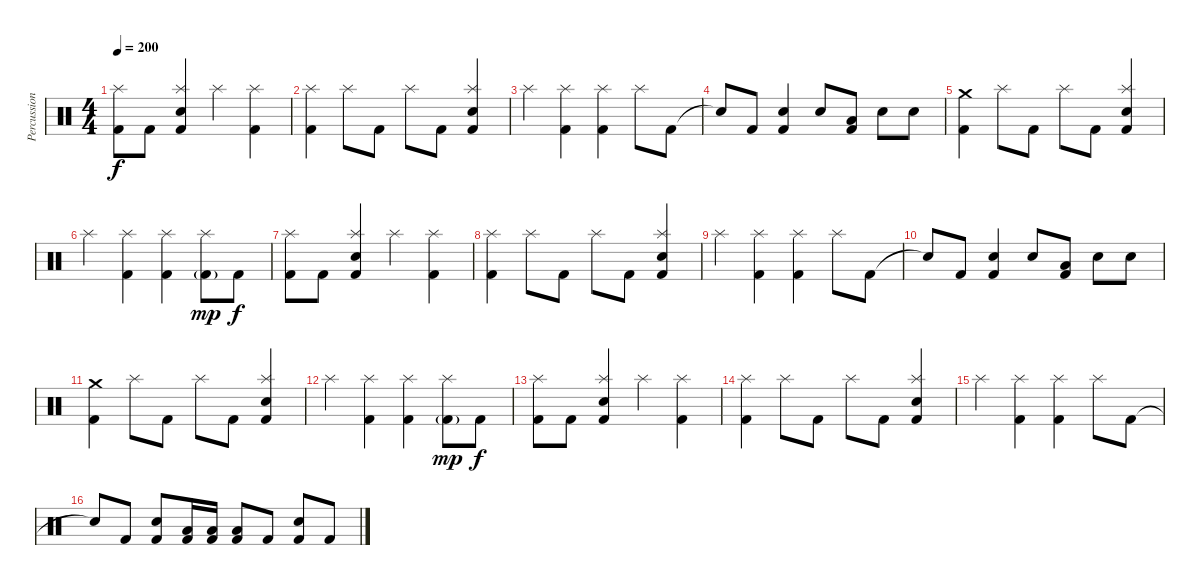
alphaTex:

\track ("Percussion" "Percussion") {instrument percussion}
\staff {score}
\articulation defaults
\ts (4 4)
\tempo 200
\clef neutral
\ks c
("Kick (hit) 2" "Splash (hit)").8{dy f} "Kick (hit) 2".8 ("Kick (hit) 2" "Snare (hit) 2" "Splash (hit)").4 "Splash (hit)".4 ("Kick (hit) 2" "Splash (hit)").4 |
("Kick (hit) 2" "Splash (hit)").4 "Splash (hit)".8 "Kick (hit) 2".8 "Splash (hit)".8 "Kick (hit) 2".8 ("Kick (hit) 2" "Splash (hit)" "Snare (hit) 2").4 |
"Splash (hit)".4 ("Kick (hit) 2" "Splash (hit)").4 ("Kick (hit) 2" "Splash (hit)").4 "Splash (hit)".8 "Kick (hit) 2".8 |
"Snare (hit)"{t}.8 "Kick (hit) 2".8 ("Kick (hit) 2" "Snare (hit) 2").4 "Snare (hit) 2".8 ("Kick (hit) 2" "Low Tom (hit)").8 "Snare (hit) 2".8 "Snare (hit) 2".8 |
("Kick (hit) 2" "Crash medium (hit)").4 "Splash (hit)".8 "Kick (hit) 2".8 "Splash (hit)".8 "Kick (hit) 2".8 ("Kick (hit) 2" "Splash (hit)" "Snare (hit) 2").4 |
"Splash (hit)".4 ("Kick (hit) 2" "Splash (hit)").4 ("Kick (hit) 2" "Splash (hit)").4 ("Kick (hit) 2"{g} "Splash (hit)").8{dy mp} "Kick (hit) 2".8{dy f} |
("Kick (hit) 2" "Splash (hit)").8 "Kick (hit) 2".8 ("Kick (hit) 2" "Snare (hit) 2" "Splash (hit)").4 "Splash (hit)".4 ("Kick (hit) 2" "Splash (hit)").4 |
("Kick (hit) 2" "Splash (hit)").4 "Splash (hit)".8 "Kick (hit) 2".8 "Splash (hit)".8 "Kick (hit) 2".8 ("Kick (hit) 2" "Splash (hit)" "Snare (hit) 2").4 |
"Splash (hit)".4 ("Kick (hit) 2" "Splash (hit)").4 ("Kick (hit) 2" "Splash (hit)").4 "Splash (hit)".8 "Kick (hit) 2".8 |
"Snare (hit)"{t}.8 "Kick (hit) 2".8 ("Kick (hit) 2" "Snare (hit) 2").4 "Snare (hit) 2".8 ("Kick (hit) 2" "Low Tom (hit)").8 "Snare (hit) 2".8 "Snare (hit) 2".8 |
("Kick (hit) 2" "Crash medium (hit)").4 "Splash (hit)".8 "Kick (hit) 2".8 "Splash (hit)".8 "Kick (hit) 2".8 ("Kick (hit) 2" "Splash (hit)" "Snare (hit) 2").4 |
"Splash (hit)".4 ("Kick (hit) 2" "Splash (hit)").4 ("Kick (hit) 2" "Splash (hit)").4 ("Kick (hit) 2"{g} "Splash (hit)").8{dy mp} "Kick (hit) 2".8{dy f} |
("Kick (hit) 2" "Splash (hit)").8 "Kick (hit) 2".8 ("Kick (hit) 2" "Snare (hit) 2" "Splash (hit)").4 "Splash (hit)".4 ("Kick (hit) 2" "Splash (hit)").4 |
("Kick (hit) 2" "Splash (hit)").4 "Splash (hit)".8 "Kick (hit) 2".8 "Splash (hit)".8 "Kick (hit) 2".8 ("Kick (hit) 2" "Splash (hit)" "Snare (hit) 2").4 |
"Splash (hit)".4 ("Kick (hit) 2" "Splash (hit)").4 ("Kick (hit) 2" "Splash (hit)").4 "Splash (hit)".8 "Kick (hit) 2".8 |
"Snare (hit)"{t}.8 "Kick (hit) 2".8 ("Kick (hit) 2" "Snare (hit) 2").8 ("Kick (hit) 2" "Low Tom (hit)").16 ("Kick (hit) 2" "Low Tom (hit)").16 ("Kick (hit) 2" "Low Tom (hit)").8 "Kick (hit) 2".8 ("Kick (hit) 2" "Snare (hit) 2").8 "Kick (hit) 2".8
